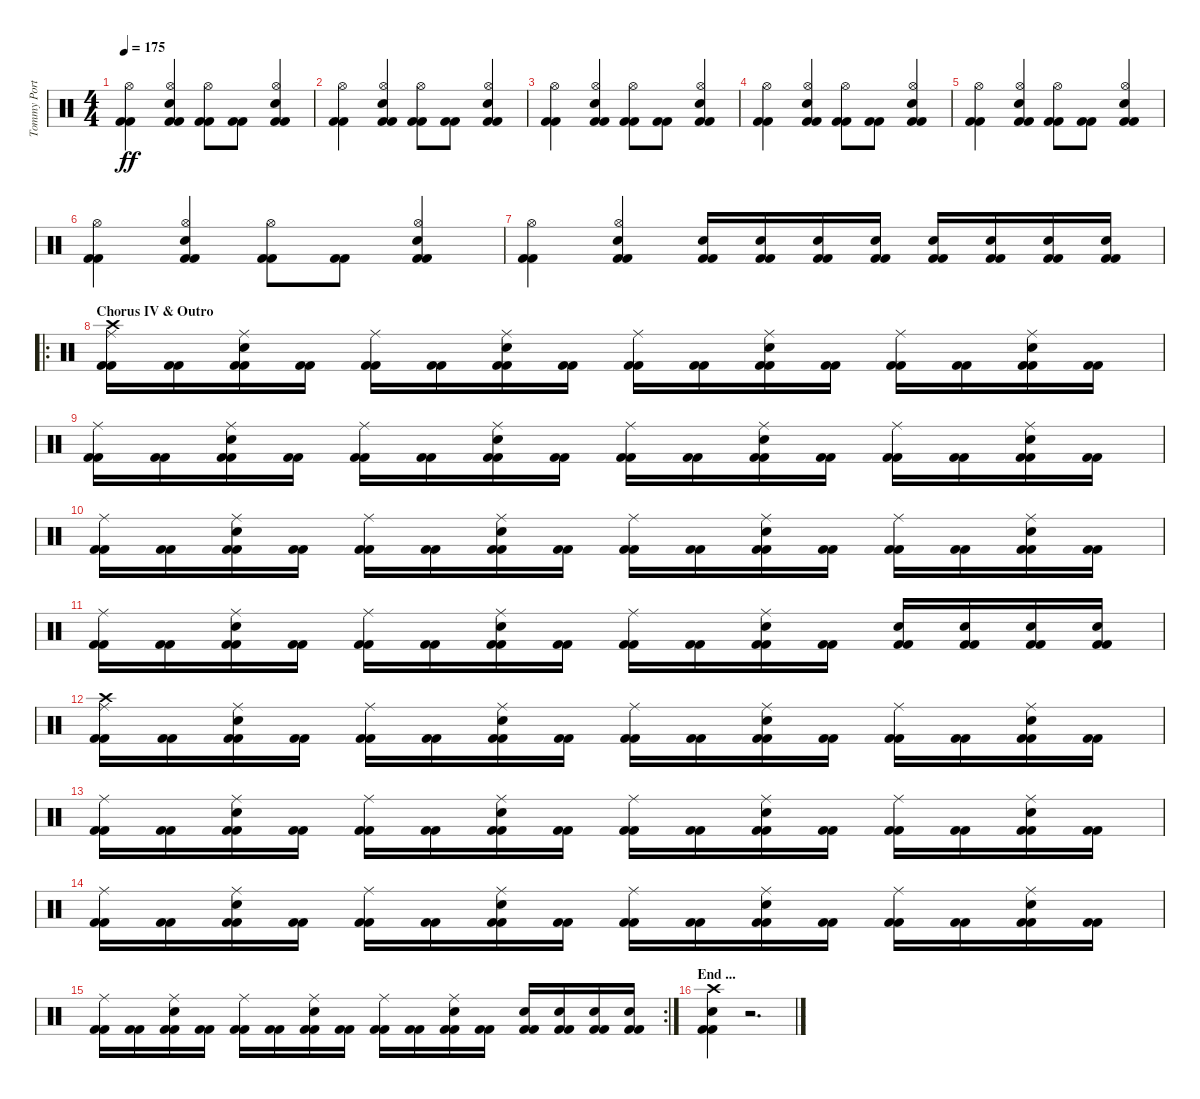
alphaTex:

\track ("Tommy Portimo" "Tommy Port") {instrument percussion}
\staff {score}
\articulation defaults
\ts (4 4)
\tempo 175
\clef neutral
\ks c
("Kick (hit) 2" "Kick (hit) 2" "Hi-Hat (open)").4{dy ff} ("Kick (hit) 2" "Kick (hit) 2" "Electric Snare (hit)" "Hi-Hat (open)").4 ("Kick (hit) 2" "Kick (hit) 2" "Hi-Hat (open)").8 ("Kick (hit) 2" "Kick (hit) 2").8 ("Kick (hit) 2" "Kick (hit) 2" "Electric Snare (hit)" "Hi-Hat (open)").4 |
("Kick (hit) 2" "Kick (hit) 2" "Hi-Hat (open)").4 ("Kick (hit) 2" "Kick (hit) 2" "Electric Snare (hit)" "Hi-Hat (open)").4 ("Kick (hit) 2" "Kick (hit) 2" "Hi-Hat (open)").8 ("Kick (hit) 2" "Kick (hit) 2").8 ("Kick (hit) 2" "Kick (hit) 2" "Electric Snare (hit)" "Hi-Hat (open)").4 |
("Kick (hit) 2" "Kick (hit) 2" "Hi-Hat (open)").4 ("Kick (hit) 2" "Kick (hit) 2" "Electric Snare (hit)" "Hi-Hat (open)").4 ("Kick (hit) 2" "Kick (hit) 2" "Hi-Hat (open)").8 ("Kick (hit) 2" "Kick (hit) 2").8 ("Kick (hit) 2" "Kick (hit) 2" "Electric Snare (hit)" "Hi-Hat (open)").4 |
("Kick (hit) 2" "Kick (hit) 2" "Hi-Hat (open)").4 ("Kick (hit) 2" "Kick (hit) 2" "Electric Snare (hit)" "Hi-Hat (open)").4 ("Kick (hit) 2" "Kick (hit) 2" "Hi-Hat (open)").8 ("Kick (hit) 2" "Kick (hit) 2").8 ("Kick (hit) 2" "Kick (hit) 2" "Electric Snare (hit)" "Hi-Hat (open)").4 |
("Kick (hit) 2" "Kick (hit) 2" "Hi-Hat (open)").4 ("Kick (hit) 2" "Kick (hit) 2" "Electric Snare (hit)" "Hi-Hat (open)").4 ("Kick (hit) 2" "Kick (hit) 2" "Hi-Hat (open)").8 ("Kick (hit) 2" "Kick (hit) 2").8 ("Kick (hit) 2" "Kick (hit) 2" "Electric Snare (hit)" "Hi-Hat (open)").4 |
("Kick (hit) 2" "Kick (hit) 2" "Hi-Hat (open)").4 ("Kick (hit) 2" "Kick (hit) 2" "Electric Snare (hit)" "Hi-Hat (open)").4 ("Kick (hit) 2" "Kick (hit) 2" "Hi-Hat (open)").8 ("Kick (hit) 2" "Kick (hit) 2").8 ("Kick (hit) 2" "Kick (hit) 2" "Electric Snare (hit)" "Hi-Hat (open)").4 |
("Kick (hit) 2" "Kick (hit) 2" "Hi-Hat (open)").4 ("Kick (hit) 2" "Kick (hit) 2" "Electric Snare (hit)" "Hi-Hat (open)").4 ("Kick (hit) 2" "Kick (hit) 2" "Electric Snare (hit)").16 ("Kick (hit) 2" "Kick (hit) 2" "Electric Snare (hit)").16 ("Kick (hit) 2" "Kick (hit) 2" "Electric Snare (hit)").16 ("Kick (hit) 2" "Kick (hit) 2" "Electric Snare (hit)").16 ("Kick (hit) 2" "Kick (hit) 2" "Electric Snare (hit)").16 ("Kick (hit) 2" "Kick (hit) 2" "Electric Snare (hit)").16 ("Kick (hit) 2" "Kick (hit) 2" "Electric Snare (hit)").16 ("Kick (hit) 2" "Kick (hit) 2" "Electric Snare (hit)").16 |
\ro
\section ("" "Chorus IV & Outro")
("Kick (hit) 2" "Kick (hit) 2" "Ride (middle)" "Crash high (hit)").16 ("Kick (hit) 2" "Kick (hit) 2").16 ("Kick (hit) 2" "Kick (hit) 2" "Ride (middle)" "Electric Snare (hit)").16 ("Kick (hit) 2" "Kick (hit) 2").16 ("Kick (hit) 2" "Kick (hit) 2" "Ride (middle)").16 ("Kick (hit) 2" "Kick (hit) 2").16 ("Kick (hit) 2" "Kick (hit) 2" "Ride (middle)" "Electric Snare (hit)").16 ("Kick (hit) 2" "Kick (hit) 2").16 ("Kick (hit) 2" "Kick (hit) 2" "Ride (middle)").16 ("Kick (hit) 2" "Kick (hit) 2").16 ("Kick (hit) 2" "Kick (hit) 2" "Ride (middle)" "Electric Snare (hit)").16 ("Kick (hit) 2" "Kick (hit) 2").16 ("Kick (hit) 2" "Kick (hit) 2" "Ride (middle)").16 ("Kick (hit) 2" "Kick (hit) 2").16 ("Kick (hit) 2" "Kick (hit) 2" "Ride (middle)" "Electric Snare (hit)").16 ("Kick (hit) 2" "Kick (hit) 2").16 |
("Kick (hit) 2" "Kick (hit) 2" "Ride (middle)").16 ("Kick (hit) 2" "Kick (hit) 2").16 ("Kick (hit) 2" "Kick (hit) 2" "Ride (middle)" "Electric Snare (hit)").16 ("Kick (hit) 2" "Kick (hit) 2").16 ("Kick (hit) 2" "Kick (hit) 2" "Ride (middle)").16 ("Kick (hit) 2" "Kick (hit) 2").16 ("Kick (hit) 2" "Kick (hit) 2" "Ride (middle)" "Electric Snare (hit)").16 ("Kick (hit) 2" "Kick (hit) 2").16 ("Kick (hit) 2" "Kick (hit) 2" "Ride (middle)").16 ("Kick (hit) 2" "Kick (hit) 2").16 ("Kick (hit) 2" "Kick (hit) 2" "Ride (middle)" "Electric Snare (hit)").16 ("Kick (hit) 2" "Kick (hit) 2").16 ("Kick (hit) 2" "Kick (hit) 2" "Ride (middle)").16 ("Kick (hit) 2" "Kick (hit) 2").16 ("Kick (hit) 2" "Kick (hit) 2" "Ride (middle)" "Electric Snare (hit)").16 ("Kick (hit) 2" "Kick (hit) 2").16 |
("Kick (hit) 2" "Kick (hit) 2" "Ride (middle)").16 ("Kick (hit) 2" "Kick (hit) 2").16 ("Kick (hit) 2" "Kick (hit) 2" "Ride (middle)" "Electric Snare (hit)").16 ("Kick (hit) 2" "Kick (hit) 2").16 ("Kick (hit) 2" "Kick (hit) 2" "Ride (middle)").16 ("Kick (hit) 2" "Kick (hit) 2").16 ("Kick (hit) 2" "Kick (hit) 2" "Ride (middle)" "Electric Snare (hit)").16 ("Kick (hit) 2" "Kick (hit) 2").16 ("Kick (hit) 2" "Kick (hit) 2" "Ride (middle)").16 ("Kick (hit) 2" "Kick (hit) 2").16 ("Kick (hit) 2" "Kick (hit) 2" "Ride (middle)" "Electric Snare (hit)").16 ("Kick (hit) 2" "Kick (hit) 2").16 ("Kick (hit) 2" "Kick (hit) 2" "Ride (middle)").16 ("Kick (hit) 2" "Kick (hit) 2").16 ("Kick (hit) 2" "Kick (hit) 2" "Ride (middle)" "Electric Snare (hit)").16 ("Kick (hit) 2" "Kick (hit) 2").16 |
("Kick (hit) 2" "Kick (hit) 2" "Ride (middle)").16 ("Kick (hit) 2" "Kick (hit) 2").16 ("Kick (hit) 2" "Kick (hit) 2" "Ride (middle)" "Electric Snare (hit)").16 ("Kick (hit) 2" "Kick (hit) 2").16 ("Kick (hit) 2" "Kick (hit) 2" "Ride (middle)").16 ("Kick (hit) 2" "Kick (hit) 2").16 ("Kick (hit) 2" "Kick (hit) 2" "Ride (middle)" "Electric Snare (hit)").16 ("Kick (hit) 2" "Kick (hit) 2").16 ("Kick (hit) 2" "Kick (hit) 2" "Ride (middle)").16 ("Kick (hit) 2" "Kick (hit) 2").16 ("Kick (hit) 2" "Kick (hit) 2" "Ride (middle)" "Electric Snare (hit)").16 ("Kick (hit) 2" "Kick (hit) 2").16 ("Kick (hit) 2" "Kick (hit) 2" "Electric Snare (hit)").16 ("Kick (hit) 2" "Kick (hit) 2" "Electric Snare (hit)").16 ("Kick (hit) 2" "Kick (hit) 2" "Electric Snare (hit)").16 ("Kick (hit) 2" "Kick (hit) 2" "Electric Snare (hit)").16 |
("Kick (hit) 2" "Kick (hit) 2" "Ride (middle)" "Crash high (hit)").16 ("Kick (hit) 2" "Kick (hit) 2").16 ("Kick (hit) 2" "Kick (hit) 2" "Ride (middle)" "Electric Snare (hit)").16 ("Kick (hit) 2" "Kick (hit) 2").16 ("Kick (hit) 2" "Kick (hit) 2" "Ride (middle)").16 ("Kick (hit) 2" "Kick (hit) 2").16 ("Kick (hit) 2" "Kick (hit) 2" "Ride (middle)" "Electric Snare (hit)").16 ("Kick (hit) 2" "Kick (hit) 2").16 ("Kick (hit) 2" "Kick (hit) 2" "Ride (middle)").16 ("Kick (hit) 2" "Kick (hit) 2").16 ("Kick (hit) 2" "Kick (hit) 2" "Ride (middle)" "Electric Snare (hit)").16 ("Kick (hit) 2" "Kick (hit) 2").16 ("Kick (hit) 2" "Kick (hit) 2" "Ride (middle)").16 ("Kick (hit) 2" "Kick (hit) 2").16 ("Kick (hit) 2" "Kick (hit) 2" "Ride (middle)" "Electric Snare (hit)").16 ("Kick (hit) 2" "Kick (hit) 2").16 |
("Kick (hit) 2" "Kick (hit) 2" "Ride (middle)").16 ("Kick (hit) 2" "Kick (hit) 2").16 ("Kick (hit) 2" "Kick (hit) 2" "Ride (middle)" "Electric Snare (hit)").16 ("Kick (hit) 2" "Kick (hit) 2").16 ("Kick (hit) 2" "Kick (hit) 2" "Ride (middle)").16 ("Kick (hit) 2" "Kick (hit) 2").16 ("Kick (hit) 2" "Kick (hit) 2" "Ride (middle)" "Electric Snare (hit)").16 ("Kick (hit) 2" "Kick (hit) 2").16 ("Kick (hit) 2" "Kick (hit) 2" "Ride (middle)").16 ("Kick (hit) 2" "Kick (hit) 2").16 ("Kick (hit) 2" "Kick (hit) 2" "Ride (middle)" "Electric Snare (hit)").16 ("Kick (hit) 2" "Kick (hit) 2").16 ("Kick (hit) 2" "Kick (hit) 2" "Ride (middle)").16 ("Kick (hit) 2" "Kick (hit) 2").16 ("Kick (hit) 2" "Kick (hit) 2" "Ride (middle)" "Electric Snare (hit)").16 ("Kick (hit) 2" "Kick (hit) 2").16 |
("Kick (hit) 2" "Kick (hit) 2" "Ride (middle)").16 ("Kick (hit) 2" "Kick (hit) 2").16 ("Kick (hit) 2" "Kick (hit) 2" "Ride (middle)" "Electric Snare (hit)").16 ("Kick (hit) 2" "Kick (hit) 2").16 ("Kick (hit) 2" "Kick (hit) 2" "Ride (middle)").16 ("Kick (hit) 2" "Kick (hit) 2").16 ("Kick (hit) 2" "Kick (hit) 2" "Ride (middle)" "Electric Snare (hit)").16 ("Kick (hit) 2" "Kick (hit) 2").16 ("Kick (hit) 2" "Kick (hit) 2" "Ride (middle)").16 ("Kick (hit) 2" "Kick (hit) 2").16 ("Kick (hit) 2" "Kick (hit) 2" "Ride (middle)" "Electric Snare (hit)").16 ("Kick (hit) 2" "Kick (hit) 2").16 ("Kick (hit) 2" "Kick (hit) 2" "Ride (middle)").16 ("Kick (hit) 2" "Kick (hit) 2").16 ("Kick (hit) 2" "Kick (hit) 2" "Ride (middle)" "Electric Snare (hit)").16 ("Kick (hit) 2" "Kick (hit) 2").16 |
\rc 2
("Kick (hit) 2" "Kick (hit) 2" "Ride (middle)").16 ("Kick (hit) 2" "Kick (hit) 2").16 ("Kick (hit) 2" "Kick (hit) 2" "Ride (middle)" "Electric Snare (hit)").16 ("Kick (hit) 2" "Kick (hit) 2").16 ("Kick (hit) 2" "Kick (hit) 2" "Ride (middle)").16 ("Kick (hit) 2" "Kick (hit) 2").16 ("Kick (hit) 2" "Kick (hit) 2" "Ride (middle)" "Electric Snare (hit)").16 ("Kick (hit) 2" "Kick (hit) 2").16 ("Kick (hit) 2" "Kick (hit) 2" "Ride (middle)").16 ("Kick (hit) 2" "Kick (hit) 2").16 ("Kick (hit) 2" "Kick (hit) 2" "Ride (middle)" "Electric Snare (hit)").16 ("Kick (hit) 2" "Kick (hit) 2").16 ("Kick (hit) 2" "Kick (hit) 2" "Electric Snare (hit)").16 ("Kick (hit) 2" "Kick (hit) 2" "Electric Snare (hit)").16 ("Kick (hit) 2" "Kick (hit) 2" "Electric Snare (hit)").16 ("Kick (hit) 2" "Kick (hit) 2" "Electric Snare (hit)").16 |
\section ("" "End ...")
("Kick (hit) 2" "Kick (hit) 2" "Electric Snare (hit)" "Crash high (hit)").4 r.2{d}
